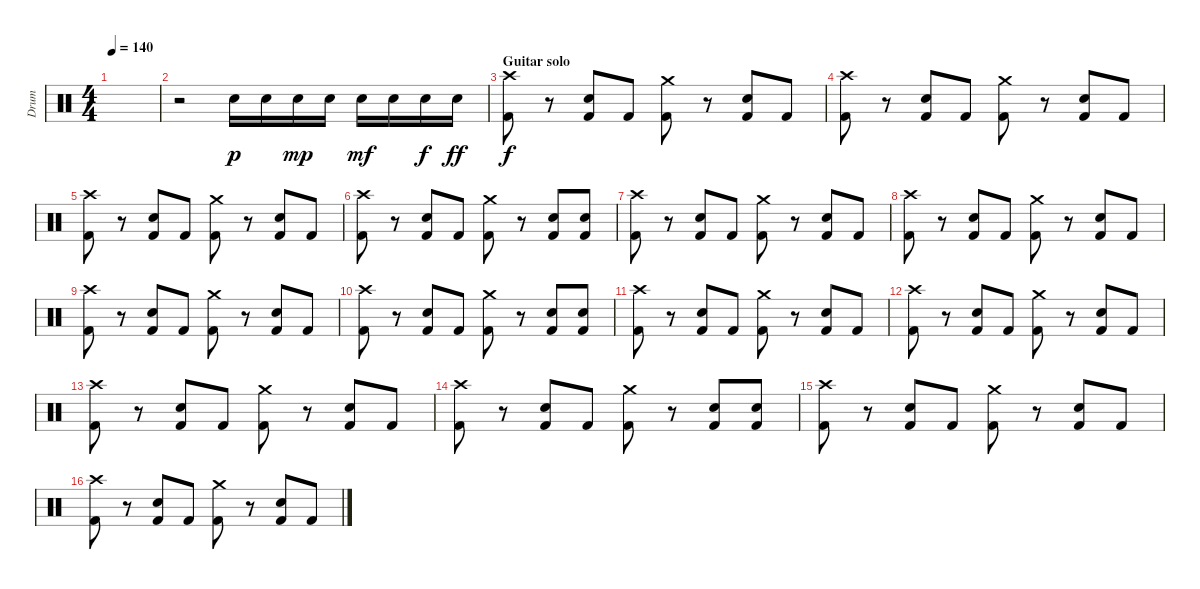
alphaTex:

\track ("Drum" "Drum") {instrument percussion}
\staff {score}
\articulation defaults
\ts (4 4)
\tempo 140
\clef neutral
\ks c
|
r.2 "Electric Snare (hit)".16{dy p} "Electric Snare (hit)".16 "Electric Snare (hit)".16{dy mp} "Electric Snare (hit)".16 "Electric Snare (hit)".16{dy mf} "Electric Snare (hit)".16 "Electric Snare (hit)".16{dy f} "Electric Snare (hit)".16{dy ff} |
\section ("" "Guitar solo")
("Crash high (hit)" "Kick (hit) 2").8{dy f} r.8 ("Electric Snare (hit)" "Kick (hit) 2").8 "Kick (hit) 2".8 ("Crash medium (hit)" "Kick (hit) 2").8 r.8 ("Electric Snare (hit)" "Kick (hit) 2").8 "Kick (hit) 2".8 |
("Crash high (hit)" "Kick (hit) 2").8 r.8 ("Electric Snare (hit)" "Kick (hit) 2").8 "Kick (hit) 2".8 ("Crash medium (hit)" "Kick (hit) 2").8 r.8 ("Electric Snare (hit)" "Kick (hit) 2").8 "Kick (hit) 2".8 |
("Crash high (hit)" "Kick (hit) 2").8 r.8 ("Electric Snare (hit)" "Kick (hit) 2").8 "Kick (hit) 2".8 ("Crash medium (hit)" "Kick (hit) 2").8 r.8 ("Electric Snare (hit)" "Kick (hit) 2").8 "Kick (hit) 2".8 |
("Crash high (hit)" "Kick (hit) 2").8 r.8 ("Electric Snare (hit)" "Kick (hit) 2").8 "Kick (hit) 2".8 ("Crash medium (hit)" "Kick (hit) 2").8 r.8 ("Electric Snare (hit)" "Kick (hit) 2").8 ("Electric Snare (hit)" "Kick (hit) 2").8 |
("Crash high (hit)" "Kick (hit) 2").8 r.8 ("Electric Snare (hit)" "Kick (hit) 2").8 "Kick (hit) 2".8 ("Crash medium (hit)" "Kick (hit) 2").8 r.8 ("Electric Snare (hit)" "Kick (hit) 2").8 "Kick (hit) 2".8 |
("Crash high (hit)" "Kick (hit) 2").8 r.8 ("Electric Snare (hit)" "Kick (hit) 2").8 "Kick (hit) 2".8 ("Crash medium (hit)" "Kick (hit) 2").8 r.8 ("Electric Snare (hit)" "Kick (hit) 2").8 "Kick (hit) 2".8 |
("Crash high (hit)" "Kick (hit) 2").8 r.8 ("Electric Snare (hit)" "Kick (hit) 2").8 "Kick (hit) 2".8 ("Crash medium (hit)" "Kick (hit) 2").8 r.8 ("Electric Snare (hit)" "Kick (hit) 2").8 "Kick (hit) 2".8 |
("Crash high (hit)" "Kick (hit) 2").8 r.8 ("Electric Snare (hit)" "Kick (hit) 2").8 "Kick (hit) 2".8 ("Crash medium (hit)" "Kick (hit) 2").8 r.8 ("Electric Snare (hit)" "Kick (hit) 2").8 ("Electric Snare (hit)" "Kick (hit) 2").8 |
("Crash high (hit)" "Kick (hit) 2").8 r.8 ("Electric Snare (hit)" "Kick (hit) 2").8 "Kick (hit) 2".8 ("Crash medium (hit)" "Kick (hit) 2").8 r.8 ("Electric Snare (hit)" "Kick (hit) 2").8 "Kick (hit) 2".8 |
("Crash high (hit)" "Kick (hit) 2").8 r.8 ("Electric Snare (hit)" "Kick (hit) 2").8 "Kick (hit) 2".8 ("Crash medium (hit)" "Kick (hit) 2").8 r.8 ("Electric Snare (hit)" "Kick (hit) 2").8 "Kick (hit) 2".8 |
("Crash high (hit)" "Kick (hit) 2").8 r.8 ("Electric Snare (hit)" "Kick (hit) 2").8 "Kick (hit) 2".8 ("Crash medium (hit)" "Kick (hit) 2").8 r.8 ("Electric Snare (hit)" "Kick (hit) 2").8 "Kick (hit) 2".8 |
("Crash high (hit)" "Kick (hit) 2").8 r.8 ("Electric Snare (hit)" "Kick (hit) 2").8 "Kick (hit) 2".8 ("Crash medium (hit)" "Kick (hit) 2").8 r.8 ("Electric Snare (hit)" "Kick (hit) 2").8 ("Electric Snare (hit)" "Kick (hit) 2").8 |
("Crash high (hit)" "Kick (hit) 2").8 r.8 ("Electric Snare (hit)" "Kick (hit) 2").8 "Kick (hit) 2".8 ("Crash medium (hit)" "Kick (hit) 2").8 r.8 ("Electric Snare (hit)" "Kick (hit) 2").8 "Kick (hit) 2".8 |
("Crash high (hit)" "Kick (hit) 2").8 r.8 ("Electric Snare (hit)" "Kick (hit) 2").8 "Kick (hit) 2".8 ("Crash medium (hit)" "Kick (hit) 2").8 r.8 ("Electric Snare (hit)" "Kick (hit) 2").8 "Kick (hit) 2".8
